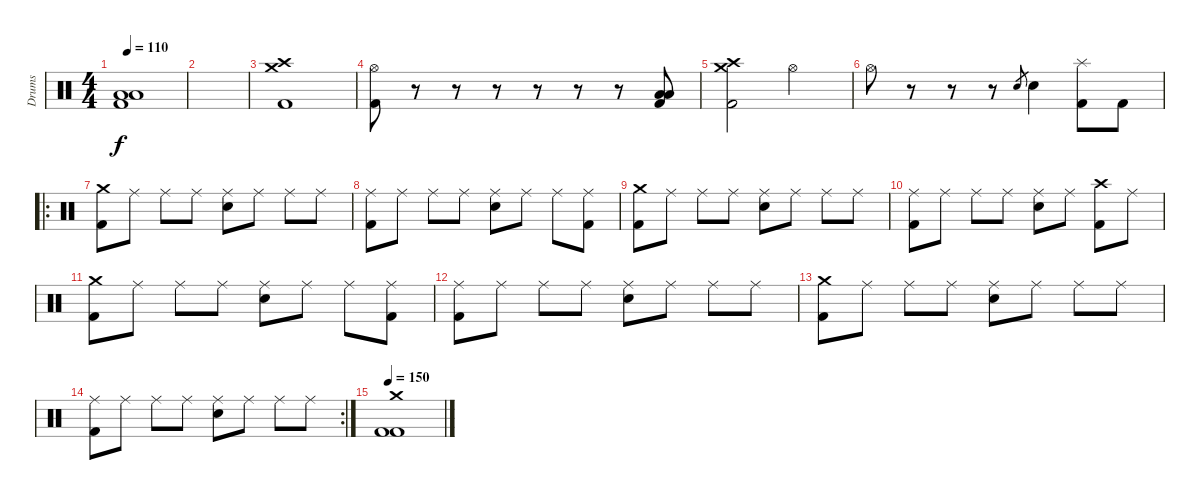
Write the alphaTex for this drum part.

\track ("Drums" "Drums") {instrument percussion}
\staff {score}
\articulation defaults
\ts (4 4)
\tempo 110
\clef neutral
\ks c
("Kick (hit) 2" "Low Floor Tom (hit)" "Low Floor Tom (hit)").1{dy f} |
|
("Kick (hit) 2" "Crash medium (hit)" "Crash high (hit)").1 |
("Kick (hit) 2" "Hi-Hat (open)").8 r.8 r.8 r.8 r.8 r.8 r.8 ("Kick (hit) 2" "Low Floor Tom (hit)" "Low Floor Tom (hit)").8 |
("Kick (hit) 2" "Crash medium (hit)" "Crash high (hit)").2 "Hi-Hat (open)".2 |
"Hi-Hat (open)".8 r.8 r.8 r.8 "Electric Snare (hit)".8{gr} "Electric Snare (hit)".4 ("Splash (hit)" "Kick (hit) 2").8 "Kick (hit) 2".8 |
\ro
("Crash medium (hit)" "Kick (hit) 2").8 "Ride (middle)".8 "Ride (middle)".8 "Ride (middle)".8 ("Ride (middle)" "Electric Snare (hit)").8 "Ride (middle)".8 "Ride (middle)".8 "Ride (middle)".8 |
("Ride (middle)" "Kick (hit) 2").8 "Ride (middle)".8 "Ride (middle)".8 "Ride (middle)".8 ("Ride (middle)" "Electric Snare (hit)").8 "Ride (middle)".8 "Ride (middle)".8 ("Ride (middle)" "Kick (hit) 2").8 |
("Crash medium (hit)" "Kick (hit) 2").8 "Ride (middle)".8 "Ride (middle)".8 "Ride (middle)".8 ("Ride (middle)" "Electric Snare (hit)").8 "Ride (middle)".8 "Ride (middle)".8 "Ride (middle)".8 |
("Ride (middle)" "Kick (hit) 2").8 "Ride (middle)".8 "Ride (middle)".8 "Ride (middle)".8 ("Ride (middle)" "Electric Snare (hit)").8 "Ride (middle)".8 ("Crash high (hit)" "Kick (hit) 2").8 "Ride (middle)".8 |
("Crash medium (hit)" "Kick (hit) 2").8 "Ride (middle)".8 "Ride (middle)".8 "Ride (middle)".8 ("Ride (middle)" "Electric Snare (hit)").8 "Ride (middle)".8 "Ride (middle)".8 ("Ride (middle)" "Kick (hit) 2").8 |
("Ride (middle)" "Kick (hit) 2").8 "Ride (middle)".8 "Ride (middle)".8 "Ride (middle)".8 ("Ride (middle)" "Electric Snare (hit)").8 "Ride (middle)".8 "Ride (middle)".8 "Ride (middle)".8 |
("Crash medium (hit)" "Kick (hit) 2").8 "Ride (middle)".8 "Ride (middle)".8 "Ride (middle)".8 ("Ride (middle)" "Electric Snare (hit)").8 "Ride (middle)".8 "Ride (middle)".8 "Ride (middle)".8 |
\rc 2
("Ride (middle)" "Kick (hit) 2").8 "Ride (middle)".8 "Ride (middle)".8 "Ride (middle)".8 ("Ride (middle)" "Electric Snare (hit)").8 "Ride (middle)".8 "Ride (middle)".8 "Ride (middle)".8 |
\tempo 150
("Kick (hit) 2" "Crash medium (hit)" "Kick (hit) 2").1
